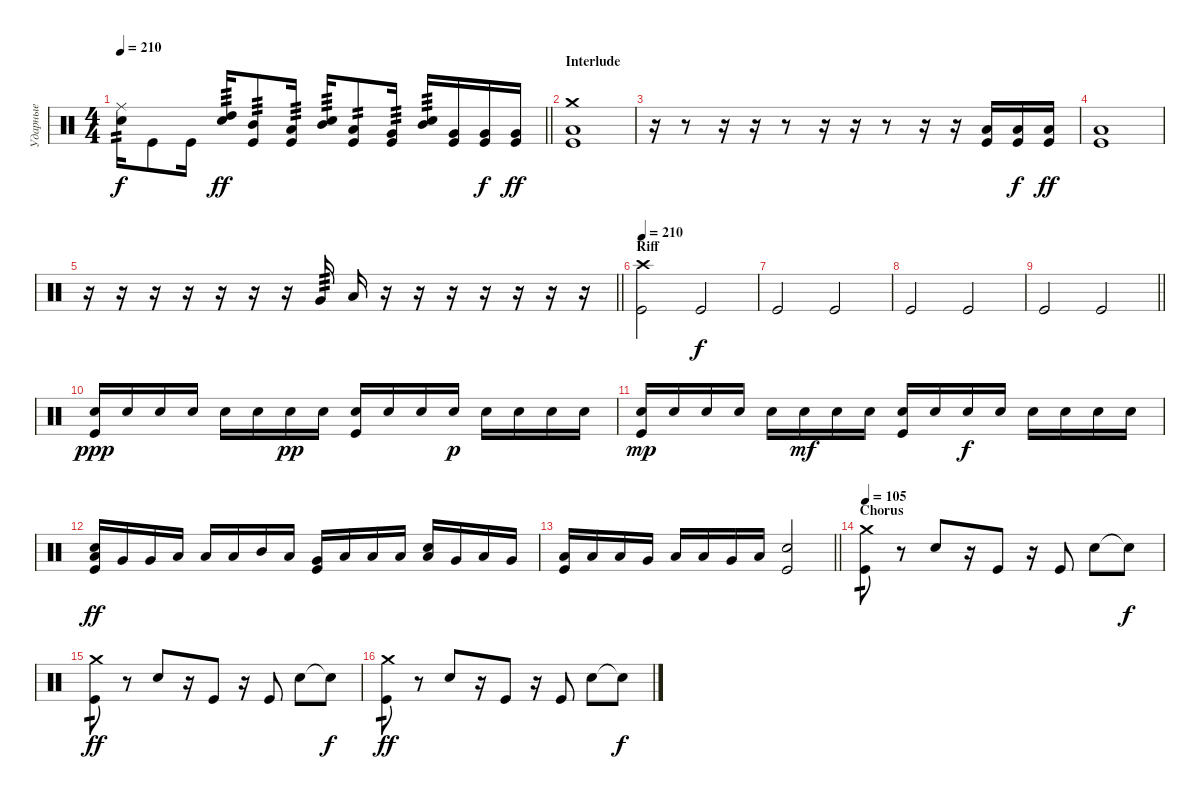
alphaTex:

\track ("Ударные" "Ударные") {instrument percussion}
\staff {score}
\articulation defaults
\ts (4 4)
\tempo 210
\clef neutral
\barLineRight lightlight
\ks c
("Ride (middle)" "Electric Snare (hit)").16{tp 2 dy f} "Kick (hit)".8 "Kick (hit)".16 ("High Tom (hit)" "Electric Snare (hit)").16{tp 3 dy ff} ("Mid Tom (hit)" "Kick (hit)").8{tp 3} ("Low Tom (hit)" "Kick (hit)").16{tp 3} ("Mid Tom (hit)" "Electric Snare (hit)").16{tp 3} ("Low Tom (hit)" "Kick (hit)").8{tp 2} ("Very Low Tom (hit)" "Kick (hit)").16{tp 3} ("Mid Tom (hit)" "Electric Snare (hit)").16{tp 3} ("Very Low Tom (hit)" "Kick (hit)").16 ("Very Low Tom (hit)" "Kick (hit)").16{dy f} ("Very Low Tom (hit)" "Kick (hit)").16{dy ff} |
\section ("" "Interlude")
("Low Floor Tom (hit)" "Crash medium (hit)" "Kick (hit)").1 |
r.16 r.8 r.16 r.16 r.8 r.16 r.16 r.8 r.16 r.16 ("Low Floor Tom (hit)" "Kick (hit)").16 ("Low Floor Tom (hit)" "Kick (hit)").16{dy f} ("Low Floor Tom (hit)" "Kick (hit)").16{dy ff} |
("Low Floor Tom (hit)" "Kick (hit)").1 |
\barLineRight lightlight
r.16 r.16 r.16 r.16 r.16 r.16 r.16 "Very Low Tom (hit)".16{tp 3} "Low Floor Tom (hit)".16 r.16 r.16 r.16 r.16 r.16 r.16 r.16 |
\section ("" "Riff")
\tempo 210
("Crash high (hit)" "Kick (hit)").2 "Kick (hit)".2{dy f} |
"Kick (hit)".2 "Kick (hit)".2 |
"Kick (hit)".2 "Kick (hit)".2 |
\barLineRight lightlight "Kick (hit)".2 "Kick (hit)".2
|
("Electric Snare (hit)" "Kick (hit)").16{dy ppp} "Electric Snare (hit)".16 "Electric Snare (hit)".16 "Electric Snare (hit)".16 "Electric Snare (hit)".16 "Electric Snare (hit)".16 "Electric Snare (hit)".16{dy pp} "Electric Snare (hit)".16 ("Electric Snare (hit)" "Kick (hit)").16 "Electric Snare (hit)".16 "Electric Snare (hit)".16 "Electric Snare (hit)".16{dy p} "Electric Snare (hit)".16 "Electric Snare (hit)".16 "Electric Snare (hit)".16 "Electric Snare (hit)".16 |
("Electric Snare (hit)" "Kick (hit)").16{dy mp} "Electric Snare (hit)".16 "Electric Snare (hit)".16 "Electric Snare (hit)".16 "Electric Snare (hit)".16 "Electric Snare (hit)".16{dy mf} "Electric Snare (hit)".16 "Electric Snare (hit)".16 ("Electric Snare (hit)" "Kick (hit)").16 "Electric Snare (hit)".16 "Electric Snare (hit)".16{dy f} "Electric Snare (hit)".16 "Electric Snare (hit)".16 "Electric Snare (hit)".16 "Electric Snare (hit)".16 "Electric Snare (hit)".16 |
("Electric Snare (hit)" "Low Tom (hit)" "Kick (hit)").16{dy ff} "Very Low Tom (hit)".16 "Very Low Tom (hit)".16 "Low Floor Tom (hit)".16 "Low Floor Tom (hit)".16 "Low Floor Tom (hit)".16 "Mid Tom (hit)".16 "Low Tom (hit)".16 ("Very Low Tom (hit)" "Kick (hit)").16 "Low Floor Tom (hit)".16 "Low Floor Tom (hit)".16 "Low Floor Tom (hit)".16 ("Electric Snare (hit)" "Low Tom (hit)").16 "Very Low Tom (hit)".16 "Low Floor Tom (hit)".16 "Very Low Tom (hit)".16 |
\barLineRight lightlight
("Low Floor Tom (hit)" "Kick (hit)").16 "Low Floor Tom (hit)".16 "Low Tom (hit)".16 "Very Low Tom (hit)".16 "Low Floor Tom (hit)".16 "Low Floor Tom (hit)".16 "Very Low Tom (hit)".16 "Low Floor Tom (hit)".16 ("Electric Snare (hit)" "Kick (hit)").2 |
\section ("" "Chorus")
\tempo 105
("Crash medium (hit)" "Kick (hit)").8{tp 1} r.8 "Electric Snare (hit)".8 r.16 "Kick (hit)".8 r.16 "Kick (hit)".8 "Electric Snare (hit)".8 "Snare (hit)"{t}.8{dy f} |
("Crash medium (hit)" "Kick (hit)").8{tp 1 dy ff} r.8 "Electric Snare (hit)".8 r.16 "Kick (hit)".8 r.16 "Kick (hit)".8 "Electric Snare (hit)".8 "Snare (hit)"{t}.8{dy f} |
("Crash medium (hit)" "Kick (hit)").8{tp 1 dy ff} r.8 "Electric Snare (hit)".8 r.16 "Kick (hit)".8 r.16 "Kick (hit)".8 "Electric Snare (hit)".8 "Snare (hit)"{t}.8{dy f}
